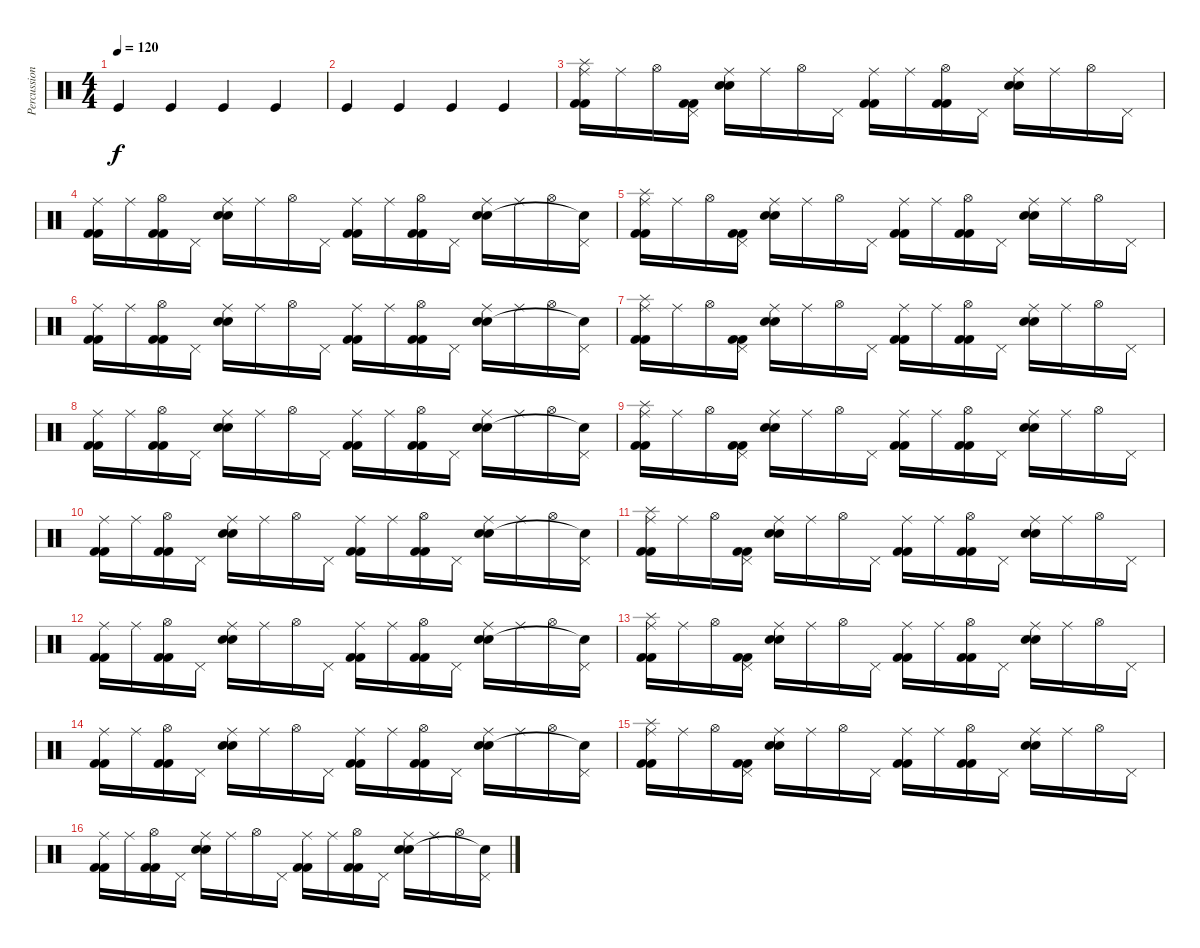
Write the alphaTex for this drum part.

\track ("Percussion" "Percussion") {instrument percussion}
\staff {score}
\articulation defaults
\ts (4 4)
\tempo 120
\clef neutral
\ks c "Kick (hit)".4{dy f} "Kick (hit)".4 "Kick (hit)".4 "Kick (hit)".4
|
"Kick (hit)".4 "Kick (hit)".4 "Kick (hit)".4 "Kick (hit)".4 |
("Ride (middle)" "Splash (hit)" "Kick (hit) 2" "Kick (hit) 2").16 "Ride (middle)".16 "Hi-Hat (open)".16 ("Pedal Hi-Hat (hit)" "Kick (hit) 2" "Kick (hit) 2").16 ("Ride (middle)" "Electric Snare (hit)" "Electric Snare (hit)").16 "Ride (middle)".16 "Hi-Hat (open)".16 "Pedal Hi-Hat (hit)".16 ("Ride (middle)" "Kick (hit) 2" "Kick (hit) 2").16 "Ride (middle)".16 ("Hi-Hat (open)" "Kick (hit) 2" "Kick (hit) 2").16 "Pedal Hi-Hat (hit)".16 ("Ride (middle)" "Electric Snare (hit)" "Electric Snare (hit)").16 "Ride (middle)".16 "Hi-Hat (open)".16 "Pedal Hi-Hat (hit)".16 |
("Ride (middle)" "Kick (hit) 2" "Kick (hit) 2").16 "Ride (middle)".16 ("Hi-Hat (open)" "Kick (hit) 2" "Kick (hit) 2").16 "Pedal Hi-Hat (hit)".16 ("Ride (middle)" "Electric Snare (hit)" "Electric Snare (hit)").16 "Ride (middle)".16 "Hi-Hat (open)".16 "Pedal Hi-Hat (hit)".16 ("Ride (middle)" "Kick (hit) 2" "Kick (hit) 2").16 "Ride (middle)".16 ("Hi-Hat (open)" "Kick (hit) 2" "Kick (hit) 2").16 "Pedal Hi-Hat (hit)".16 ("Ride (middle)" "Electric Snare (hit)" "Electric Snare (hit)").16 "Ride (middle)".16 "Hi-Hat (open)".16 ("Pedal Hi-Hat (hit)" "Snare (hit)"{t}).16 |
("Ride (middle)" "Splash (hit)" "Kick (hit) 2" "Kick (hit) 2").16 "Ride (middle)".16 "Hi-Hat (open)".16 ("Pedal Hi-Hat (hit)" "Kick (hit) 2" "Kick (hit) 2").16 ("Ride (middle)" "Electric Snare (hit)" "Electric Snare (hit)").16 "Ride (middle)".16 "Hi-Hat (open)".16 "Pedal Hi-Hat (hit)".16 ("Ride (middle)" "Kick (hit) 2" "Kick (hit) 2").16 "Ride (middle)".16 ("Hi-Hat (open)" "Kick (hit) 2" "Kick (hit) 2").16 "Pedal Hi-Hat (hit)".16 ("Ride (middle)" "Electric Snare (hit)" "Electric Snare (hit)").16 "Ride (middle)".16 "Hi-Hat (open)".16 "Pedal Hi-Hat (hit)".16 |
("Ride (middle)" "Kick (hit) 2" "Kick (hit) 2").16 "Ride (middle)".16 ("Hi-Hat (open)" "Kick (hit) 2" "Kick (hit) 2").16 "Pedal Hi-Hat (hit)".16 ("Ride (middle)" "Electric Snare (hit)" "Electric Snare (hit)").16 "Ride (middle)".16 "Hi-Hat (open)".16 "Pedal Hi-Hat (hit)".16 ("Ride (middle)" "Kick (hit) 2" "Kick (hit) 2").16 "Ride (middle)".16 ("Hi-Hat (open)" "Kick (hit) 2" "Kick (hit) 2").16 "Pedal Hi-Hat (hit)".16 ("Ride (middle)" "Electric Snare (hit)" "Electric Snare (hit)").16 "Ride (middle)".16 "Hi-Hat (open)".16 ("Pedal Hi-Hat (hit)" "Snare (hit)"{t}).16 |
("Ride (middle)" "Splash (hit)" "Kick (hit) 2" "Kick (hit) 2").16 "Ride (middle)".16 "Hi-Hat (open)".16 ("Pedal Hi-Hat (hit)" "Kick (hit) 2" "Kick (hit) 2").16 ("Ride (middle)" "Electric Snare (hit)" "Electric Snare (hit)").16 "Ride (middle)".16 "Hi-Hat (open)".16 "Pedal Hi-Hat (hit)".16 ("Ride (middle)" "Kick (hit) 2" "Kick (hit) 2").16 "Ride (middle)".16 ("Hi-Hat (open)" "Kick (hit) 2" "Kick (hit) 2").16 "Pedal Hi-Hat (hit)".16 ("Ride (middle)" "Electric Snare (hit)" "Electric Snare (hit)").16 "Ride (middle)".16 "Hi-Hat (open)".16 "Pedal Hi-Hat (hit)".16 |
("Ride (middle)" "Kick (hit) 2" "Kick (hit) 2").16 "Ride (middle)".16 ("Hi-Hat (open)" "Kick (hit) 2" "Kick (hit) 2").16 "Pedal Hi-Hat (hit)".16 ("Ride (middle)" "Electric Snare (hit)" "Electric Snare (hit)").16 "Ride (middle)".16 "Hi-Hat (open)".16 "Pedal Hi-Hat (hit)".16 ("Ride (middle)" "Kick (hit) 2" "Kick (hit) 2").16 "Ride (middle)".16 ("Hi-Hat (open)" "Kick (hit) 2" "Kick (hit) 2").16 "Pedal Hi-Hat (hit)".16 ("Ride (middle)" "Electric Snare (hit)" "Electric Snare (hit)").16 "Ride (middle)".16 "Hi-Hat (open)".16 ("Pedal Hi-Hat (hit)" "Snare (hit)"{t}).16 |
("Ride (middle)" "Splash (hit)" "Kick (hit) 2" "Kick (hit) 2").16 "Ride (middle)".16 "Hi-Hat (open)".16 ("Pedal Hi-Hat (hit)" "Kick (hit) 2" "Kick (hit) 2").16 ("Ride (middle)" "Electric Snare (hit)" "Electric Snare (hit)").16 "Ride (middle)".16 "Hi-Hat (open)".16 "Pedal Hi-Hat (hit)".16 ("Ride (middle)" "Kick (hit) 2" "Kick (hit) 2").16 "Ride (middle)".16 ("Hi-Hat (open)" "Kick (hit) 2" "Kick (hit) 2").16 "Pedal Hi-Hat (hit)".16 ("Ride (middle)" "Electric Snare (hit)" "Electric Snare (hit)").16 "Ride (middle)".16 "Hi-Hat (open)".16 "Pedal Hi-Hat (hit)".16 |
("Ride (middle)" "Kick (hit) 2" "Kick (hit) 2").16 "Ride (middle)".16 ("Hi-Hat (open)" "Kick (hit) 2" "Kick (hit) 2").16 "Pedal Hi-Hat (hit)".16 ("Ride (middle)" "Electric Snare (hit)" "Electric Snare (hit)").16 "Ride (middle)".16 "Hi-Hat (open)".16 "Pedal Hi-Hat (hit)".16 ("Ride (middle)" "Kick (hit) 2" "Kick (hit) 2").16 "Ride (middle)".16 ("Hi-Hat (open)" "Kick (hit) 2" "Kick (hit) 2").16 "Pedal Hi-Hat (hit)".16 ("Ride (middle)" "Electric Snare (hit)" "Electric Snare (hit)").16 "Ride (middle)".16 "Hi-Hat (open)".16 ("Pedal Hi-Hat (hit)" "Snare (hit)"{t}).16 |
("Ride (middle)" "Splash (hit)" "Kick (hit) 2" "Kick (hit) 2").16 "Ride (middle)".16 "Hi-Hat (open)".16 ("Pedal Hi-Hat (hit)" "Kick (hit) 2" "Kick (hit) 2").16 ("Ride (middle)" "Electric Snare (hit)" "Electric Snare (hit)").16 "Ride (middle)".16 "Hi-Hat (open)".16 "Pedal Hi-Hat (hit)".16 ("Ride (middle)" "Kick (hit) 2" "Kick (hit) 2").16 "Ride (middle)".16 ("Hi-Hat (open)" "Kick (hit) 2" "Kick (hit) 2").16 "Pedal Hi-Hat (hit)".16 ("Ride (middle)" "Electric Snare (hit)" "Electric Snare (hit)").16 "Ride (middle)".16 "Hi-Hat (open)".16 "Pedal Hi-Hat (hit)".16 |
("Ride (middle)" "Kick (hit) 2" "Kick (hit) 2").16 "Ride (middle)".16 ("Hi-Hat (open)" "Kick (hit) 2" "Kick (hit) 2").16 "Pedal Hi-Hat (hit)".16 ("Ride (middle)" "Electric Snare (hit)" "Electric Snare (hit)").16 "Ride (middle)".16 "Hi-Hat (open)".16 "Pedal Hi-Hat (hit)".16 ("Ride (middle)" "Kick (hit) 2" "Kick (hit) 2").16 "Ride (middle)".16 ("Hi-Hat (open)" "Kick (hit) 2" "Kick (hit) 2").16 "Pedal Hi-Hat (hit)".16 ("Ride (middle)" "Electric Snare (hit)" "Electric Snare (hit)").16 "Ride (middle)".16 "Hi-Hat (open)".16 ("Pedal Hi-Hat (hit)" "Snare (hit)"{t}).16 |
("Ride (middle)" "Splash (hit)" "Kick (hit) 2" "Kick (hit) 2").16 "Ride (middle)".16 "Hi-Hat (open)".16 ("Pedal Hi-Hat (hit)" "Kick (hit) 2" "Kick (hit) 2").16 ("Ride (middle)" "Electric Snare (hit)" "Electric Snare (hit)").16 "Ride (middle)".16 "Hi-Hat (open)".16 "Pedal Hi-Hat (hit)".16 ("Ride (middle)" "Kick (hit) 2" "Kick (hit) 2").16 "Ride (middle)".16 ("Hi-Hat (open)" "Kick (hit) 2" "Kick (hit) 2").16 "Pedal Hi-Hat (hit)".16 ("Ride (middle)" "Electric Snare (hit)" "Electric Snare (hit)").16 "Ride (middle)".16 "Hi-Hat (open)".16 "Pedal Hi-Hat (hit)".16 |
("Ride (middle)" "Kick (hit) 2" "Kick (hit) 2").16 "Ride (middle)".16 ("Hi-Hat (open)" "Kick (hit) 2" "Kick (hit) 2").16 "Pedal Hi-Hat (hit)".16 ("Ride (middle)" "Electric Snare (hit)" "Electric Snare (hit)").16 "Ride (middle)".16 "Hi-Hat (open)".16 "Pedal Hi-Hat (hit)".16 ("Ride (middle)" "Kick (hit) 2" "Kick (hit) 2").16 "Ride (middle)".16 ("Hi-Hat (open)" "Kick (hit) 2" "Kick (hit) 2").16 "Pedal Hi-Hat (hit)".16 ("Ride (middle)" "Electric Snare (hit)" "Electric Snare (hit)").16 "Ride (middle)".16 "Hi-Hat (open)".16 ("Pedal Hi-Hat (hit)" "Snare (hit)"{t}).16 |
("Ride (middle)" "Splash (hit)" "Kick (hit) 2" "Kick (hit) 2").16 "Ride (middle)".16 "Hi-Hat (open)".16 ("Pedal Hi-Hat (hit)" "Kick (hit) 2" "Kick (hit) 2").16 ("Ride (middle)" "Electric Snare (hit)" "Electric Snare (hit)").16 "Ride (middle)".16 "Hi-Hat (open)".16 "Pedal Hi-Hat (hit)".16 ("Ride (middle)" "Kick (hit) 2" "Kick (hit) 2").16 "Ride (middle)".16 ("Hi-Hat (open)" "Kick (hit) 2" "Kick (hit) 2").16 "Pedal Hi-Hat (hit)".16 ("Ride (middle)" "Electric Snare (hit)" "Electric Snare (hit)").16 "Ride (middle)".16 "Hi-Hat (open)".16 "Pedal Hi-Hat (hit)".16 |
("Ride (middle)" "Kick (hit) 2" "Kick (hit) 2").16 "Ride (middle)".16 ("Hi-Hat (open)" "Kick (hit) 2" "Kick (hit) 2").16 "Pedal Hi-Hat (hit)".16 ("Ride (middle)" "Electric Snare (hit)" "Electric Snare (hit)").16 "Ride (middle)".16 "Hi-Hat (open)".16 "Pedal Hi-Hat (hit)".16 ("Ride (middle)" "Kick (hit) 2" "Kick (hit) 2").16 "Ride (middle)".16 ("Hi-Hat (open)" "Kick (hit) 2" "Kick (hit) 2").16 "Pedal Hi-Hat (hit)".16 ("Ride (middle)" "Electric Snare (hit)" "Electric Snare (hit)").16 "Ride (middle)".16 "Hi-Hat (open)".16 ("Pedal Hi-Hat (hit)" "Snare (hit)"{t}).16
